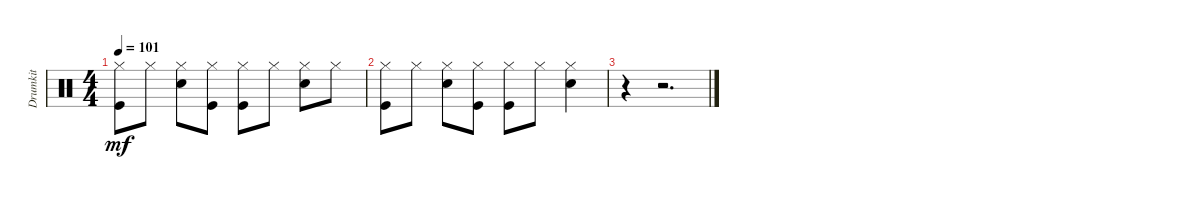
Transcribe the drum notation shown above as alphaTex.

\track ("Drumkit" "Drumkit") {instrument percussion}
\staff {score}
\articulation defaults
\ts (4 4)
\tempo 101
\clef neutral
\ks c
("Kick (hit)" "Hi-Hat (closed)").8{dy mf} "Hi-Hat (closed)".8 ("Hi-Hat (closed)" "Snare (hit) 2").8 ("Hi-Hat (closed)" "Kick (hit)").8 ("Hi-Hat (closed)" "Kick (hit)").8 "Hi-Hat (closed)".8 ("Hi-Hat (closed)" "Snare (hit) 2").8 "Hi-Hat (closed)".8 |
("Kick (hit)" "Hi-Hat (closed)").8 "Hi-Hat (closed)".8 ("Hi-Hat (closed)" "Snare (hit) 2").8 ("Hi-Hat (closed)" "Kick (hit)").8 ("Hi-Hat (closed)" "Kick (hit)").8 "Hi-Hat (closed)".8 ("Hi-Hat (closed)" "Snare (hit) 2").4 |
r.4 r.2{d}
